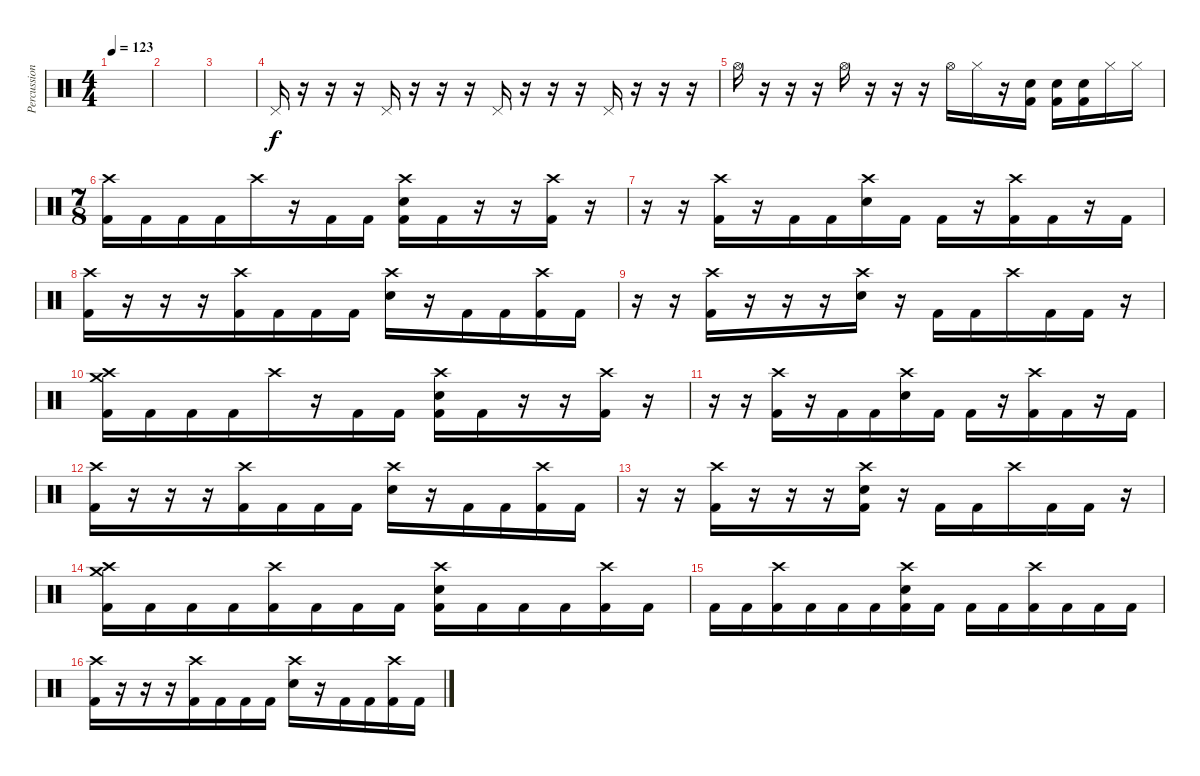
\track ("Percussion" "Percussion") {instrument percussion}
\staff {score}
\articulation defaults
\ts (4 4)
\tempo 123
\clef neutral
\ks c
|
|
|
"Pedal Hi-Hat (hit)".16 r.16 r.16 r.16 "Pedal Hi-Hat (hit)".16 r.16 r.16 r.16 "Pedal Hi-Hat (hit)".16 r.16 r.16 r.16 "Pedal Hi-Hat (hit)".16 r.16 r.16 r.16 |
"Hi-Hat (open)".16 r.16 r.16 r.16 "Hi-Hat (open)".16 r.16 r.16 r.16 "Hi-Hat (open)".16 "Hi-Hat (closed)".16 r.16 ("Electric Snare (hit)" "Kick (hit) 2").16 ("Electric Snare (hit)" "Kick (hit) 2").16 ("Electric Snare (hit)" "Kick (hit) 2").16 "Hi-Hat (closed)".16 "Hi-Hat (closed)".16 |
\ts (7 8)
("Crash high (hit)" "Kick (hit) 2").16 "Kick (hit) 2".16 "Kick (hit) 2".16 "Kick (hit) 2".16 "Crash high (hit)".16 r.16 "Kick (hit) 2".16 "Kick (hit) 2".16 ("Crash high (hit)" "Electric Snare (hit)" "Kick (hit) 2").16 "Kick (hit) 2".16 r.16 r.16 ("Crash high (hit)" "Kick (hit) 2").16 r.16 |
r.16 r.16 ("Crash high (hit)" "Kick (hit) 2").16 r.16 "Kick (hit) 2".16 "Kick (hit) 2".16 ("Crash high (hit)" "Electric Snare (hit)").16 "Kick (hit) 2".16 "Kick (hit) 2".16 r.16 ("Crash high (hit)" "Kick (hit) 2").16 "Kick (hit) 2".16 r.16 "Kick (hit) 2".16 |
("Crash high (hit)" "Kick (hit) 2").16 r.16 r.16 r.16 ("Crash high (hit)" "Kick (hit) 2").16 "Kick (hit) 2".16 "Kick (hit) 2".16 "Kick (hit) 2".16 ("Crash high (hit)" "Electric Snare (hit)").16 r.16 "Kick (hit) 2".16 "Kick (hit) 2".16 ("Crash high (hit)" "Kick (hit) 2").16 "Kick (hit) 2".16 |
r.16 r.16 ("Crash high (hit)" "Kick (hit) 2").16 r.16 r.16 r.16 ("Crash high (hit)" "Electric Snare (hit)").16 r.16 "Kick (hit) 2".16 "Kick (hit) 2".16 "Crash high (hit)".16 "Kick (hit) 2".16 "Kick (hit) 2".16 r.16 |
("Crash high (hit)" "Crash medium (hit)" "Kick (hit) 2").16 "Kick (hit) 2".16 "Kick (hit) 2".16 "Kick (hit) 2".16 "Crash high (hit)".16 r.16 "Kick (hit) 2".16 "Kick (hit) 2".16 ("Crash high (hit)" "Electric Snare (hit)" "Kick (hit) 2").16 "Kick (hit) 2".16 r.16 r.16 ("Crash high (hit)" "Kick (hit) 2").16 r.16 |
r.16 r.16 ("Crash high (hit)" "Kick (hit) 2").16 r.16 "Kick (hit) 2".16 "Kick (hit) 2".16 ("Crash high (hit)" "Electric Snare (hit)").16 "Kick (hit) 2".16 "Kick (hit) 2".16 r.16 ("Crash high (hit)" "Kick (hit) 2").16 "Kick (hit) 2".16 r.16 "Kick (hit) 2".16 |
("Crash high (hit)" "Kick (hit) 2").16 r.16 r.16 r.16 ("Crash high (hit)" "Kick (hit) 2").16 "Kick (hit) 2".16 "Kick (hit) 2".16 "Kick (hit) 2".16 ("Crash high (hit)" "Electric Snare (hit)").16 r.16 "Kick (hit) 2".16 "Kick (hit) 2".16 ("Crash high (hit)" "Kick (hit) 2").16 "Kick (hit) 2".16 |
r.16 r.16 ("Crash high (hit)" "Kick (hit) 2").16 r.16 r.16 r.16 ("Crash high (hit)" "Electric Snare (hit)" "Kick (hit) 2").16 r.16 "Kick (hit) 2".16 "Kick (hit) 2".16 "Crash high (hit)".16 "Kick (hit) 2".16 "Kick (hit) 2".16 r.16 |
("Crash high (hit)" "Crash medium (hit)" "Kick (hit) 2").16 "Kick (hit) 2".16 "Kick (hit) 2".16 "Kick (hit) 2".16 ("Crash high (hit)" "Kick (hit) 2").16 "Kick (hit) 2".16 "Kick (hit) 2".16 "Kick (hit) 2".16 ("Crash high (hit)" "Electric Snare (hit)" "Kick (hit) 2").16 "Kick (hit) 2".16 "Kick (hit) 2".16 "Kick (hit) 2".16 ("Crash high (hit)" "Kick (hit) 2").16 "Kick (hit) 2".16 |
"Kick (hit) 2".16 "Kick (hit) 2".16 ("Crash high (hit)" "Kick (hit) 2").16 "Kick (hit) 2".16 "Kick (hit) 2".16 "Kick (hit) 2".16 ("Crash high (hit)" "Electric Snare (hit)" "Kick (hit) 2").16 "Kick (hit) 2".16 "Kick (hit) 2".16 "Kick (hit) 2".16 ("Crash high (hit)" "Kick (hit) 2").16 "Kick (hit) 2".16 "Kick (hit) 2".16 "Kick (hit) 2".16 |
("Crash high (hit)" "Kick (hit) 2").16 r.16 r.16 r.16 ("Crash high (hit)" "Kick (hit) 2").16 "Kick (hit) 2".16 "Kick (hit) 2".16 "Kick (hit) 2".16 ("Crash high (hit)" "Electric Snare (hit)").16 r.16 "Kick (hit) 2".16 "Kick (hit) 2".16 ("Crash high (hit)" "Kick (hit) 2").16 "Kick (hit) 2".16
